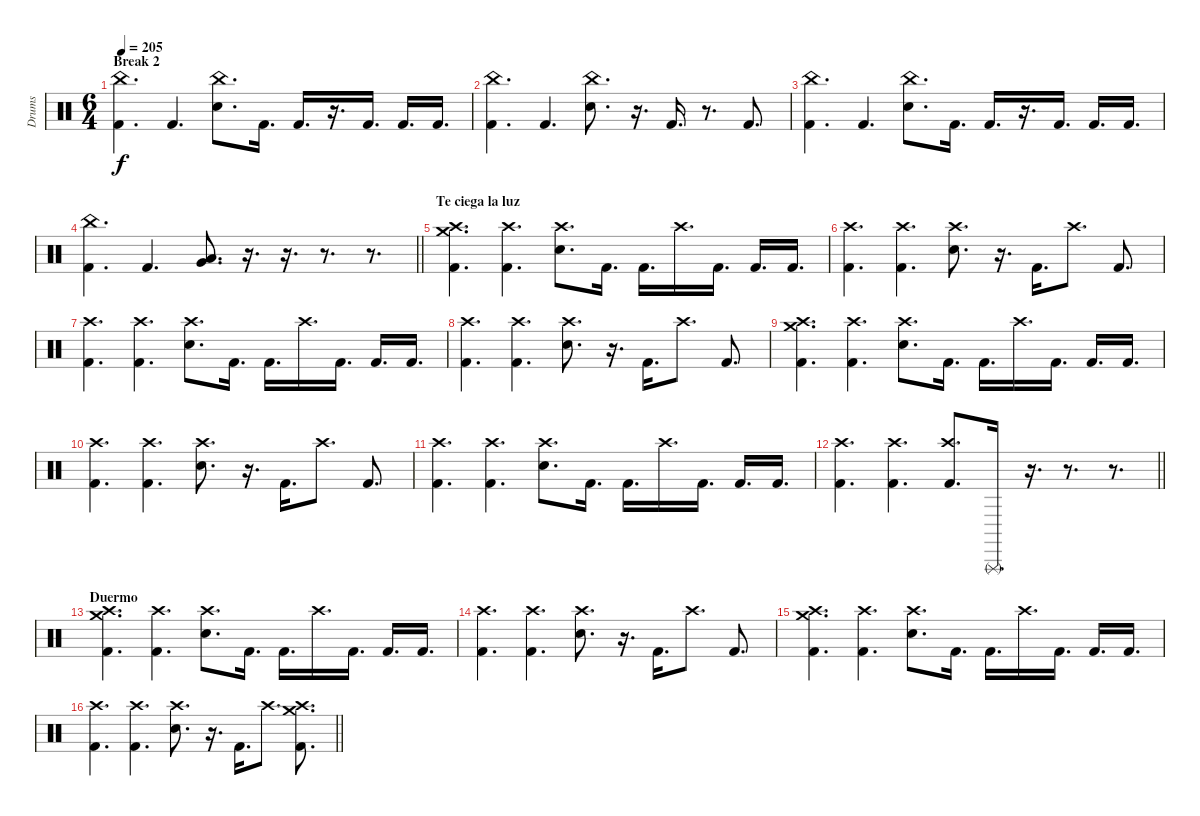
\track ("Drums" "Drums") {instrument percussion}
\staff {score}
\articulation defaults
\ts (6 4)
\section ("" "Break 2")
\tempo 205
\clef neutral
\ks c
("China (hit)" "Kick (hit) 2").4{d dy f} "Kick (hit) 2".4{d} ("China (hit)" "Electric Snare (hit)").8{d} "Kick (hit) 2".16{d} "Kick (hit) 2".16{d} r.16{d} "Kick (hit) 2".16{d} "Kick (hit) 2".16{d} "Kick (hit) 2".16{d} |
("China (hit)" "Kick (hit) 2").4{d} "Kick (hit) 2".4{d} ("China (hit)" "Electric Snare (hit)").8{d} r.16{d} "Kick (hit) 2".16{d} r.8{d} "Kick (hit) 2".8{d} |
("China (hit)" "Kick (hit) 2").4{d} "Kick (hit) 2".4{d} ("China (hit)" "Electric Snare (hit)").8{d} "Kick (hit) 2".16{d} "Kick (hit) 2".16{d} r.16{d} "Kick (hit) 2".16{d} "Kick (hit) 2".16{d} "Kick (hit) 2".16{d} |
\barLineRight lightlight
("China (hit)" "Kick (hit) 2").4{d} "Kick (hit) 2".4{d} ("Very Low Tom (hit)" "Low Floor Tom (hit)").8{d} r.16{d} r.16{d} r.8{d} r.8{d} |
\section ("" "Te ciega la luz")
("Crash high (hit)" "Crash medium (hit)" "Kick (hit) 2").4{d} ("Crash high (hit)" "Kick (hit) 2").4{d} ("Crash high (hit)" "Electric Snare (hit)").8{d} "Kick (hit) 2".16{d} "Kick (hit) 2".16{d} "Crash high (hit)".16{d} "Kick (hit) 2".16{d} "Kick (hit) 2".16{d} "Kick (hit) 2".16{d} |
("Crash high (hit)" "Kick (hit) 2").4{d} ("Crash high (hit)" "Kick (hit) 2").4{d} ("Crash high (hit)" "Electric Snare (hit)").8{d} r.16{d} "Kick (hit) 2".16{d} "Crash high (hit)".8{d} "Kick (hit) 2".8{d} |
("Crash high (hit)" "Kick (hit) 2").4{d} ("Crash high (hit)" "Kick (hit) 2").4{d} ("Crash high (hit)" "Electric Snare (hit)").8{d} "Kick (hit) 2".16{d} "Kick (hit) 2".16{d} "Crash high (hit)".16{d} "Kick (hit) 2".16{d} "Kick (hit) 2".16{d} "Kick (hit) 2".16{d} |
("Crash high (hit)" "Kick (hit) 2").4{d} ("Crash high (hit)" "Kick (hit) 2").4{d} ("Crash high (hit)" "Electric Snare (hit)").8{d} r.16{d} "Kick (hit) 2".16{d} "Crash high (hit)".8{d} "Kick (hit) 2".8{d} |
("Crash high (hit)" "Crash medium (hit)" "Kick (hit) 2").4{d} ("Crash high (hit)" "Kick (hit) 2").4{d} ("Crash high (hit)" "Electric Snare (hit)").8{d} "Kick (hit) 2".16{d} "Kick (hit) 2".16{d} "Crash high (hit)".16{d} "Kick (hit) 2".16{d} "Kick (hit) 2".16{d} "Kick (hit) 2".16{d} |
("Crash high (hit)" "Kick (hit) 2").4{d} ("Crash high (hit)" "Kick (hit) 2").4{d} ("Crash high (hit)" "Electric Snare (hit)").8{d} r.16{d} "Kick (hit) 2".16{d} "Crash high (hit)".8{d} "Kick (hit) 2".8{d} |
("Crash high (hit)" "Kick (hit) 2").4{d} ("Crash high (hit)" "Kick (hit) 2").4{d} ("Crash high (hit)" "Electric Snare (hit)").8{d} "Kick (hit) 2".16{d} "Kick (hit) 2".16{d} "Crash high (hit)".16{d} "Kick (hit) 2".16{d} "Kick (hit) 2".16{d} "Kick (hit) 2".16{d} |
\barLineRight lightlight
("Crash high (hit)" "Kick (hit) 2").4{d} ("Crash high (hit)" "Kick (hit) 2").4{d} ("Crash high (hit)" "Kick (hit) 2").8{d} "Triangle (rnute)".16{d} r.16{d} r.8{d} r.8{d} |
\section ("" "Duermo")
("Crash high (hit)" "Crash medium (hit)" "Kick (hit) 2").4{d} ("Crash high (hit)" "Kick (hit) 2").4{d} ("Crash high (hit)" "Electric Snare (hit)").8{d} "Kick (hit) 2".16{d} "Kick (hit) 2".16{d} "Crash high (hit)".16{d} "Kick (hit) 2".16{d} "Kick (hit) 2".16{d} "Kick (hit) 2".16{d} |
("Crash high (hit)" "Kick (hit) 2").4{d} ("Crash high (hit)" "Kick (hit) 2").4{d} ("Crash high (hit)" "Electric Snare (hit)").8{d} r.16{d} "Kick (hit) 2".16{d} "Crash high (hit)".8{d} "Kick (hit) 2".8{d} |
("Crash high (hit)" "Crash medium (hit)" "Kick (hit) 2").4{d} ("Crash high (hit)" "Kick (hit) 2").4{d} ("Crash high (hit)" "Electric Snare (hit)").8{d} "Kick (hit) 2".16{d} "Kick (hit) 2".16{d} "Crash high (hit)".16{d} "Kick (hit) 2".16{d} "Kick (hit) 2".16{d} "Kick (hit) 2".16{d} |
\barLineRight lightlight
("Crash high (hit)" "Kick (hit) 2").4{d} ("Crash high (hit)" "Kick (hit) 2").4{d} ("Crash high (hit)" "Electric Snare (hit)").8{d} r.16{d} "Kick (hit) 2".16{d} "Crash high (hit)".8{d} ("Crash medium (hit)" "Crash high (hit)" "Kick (hit) 2").8{d}
